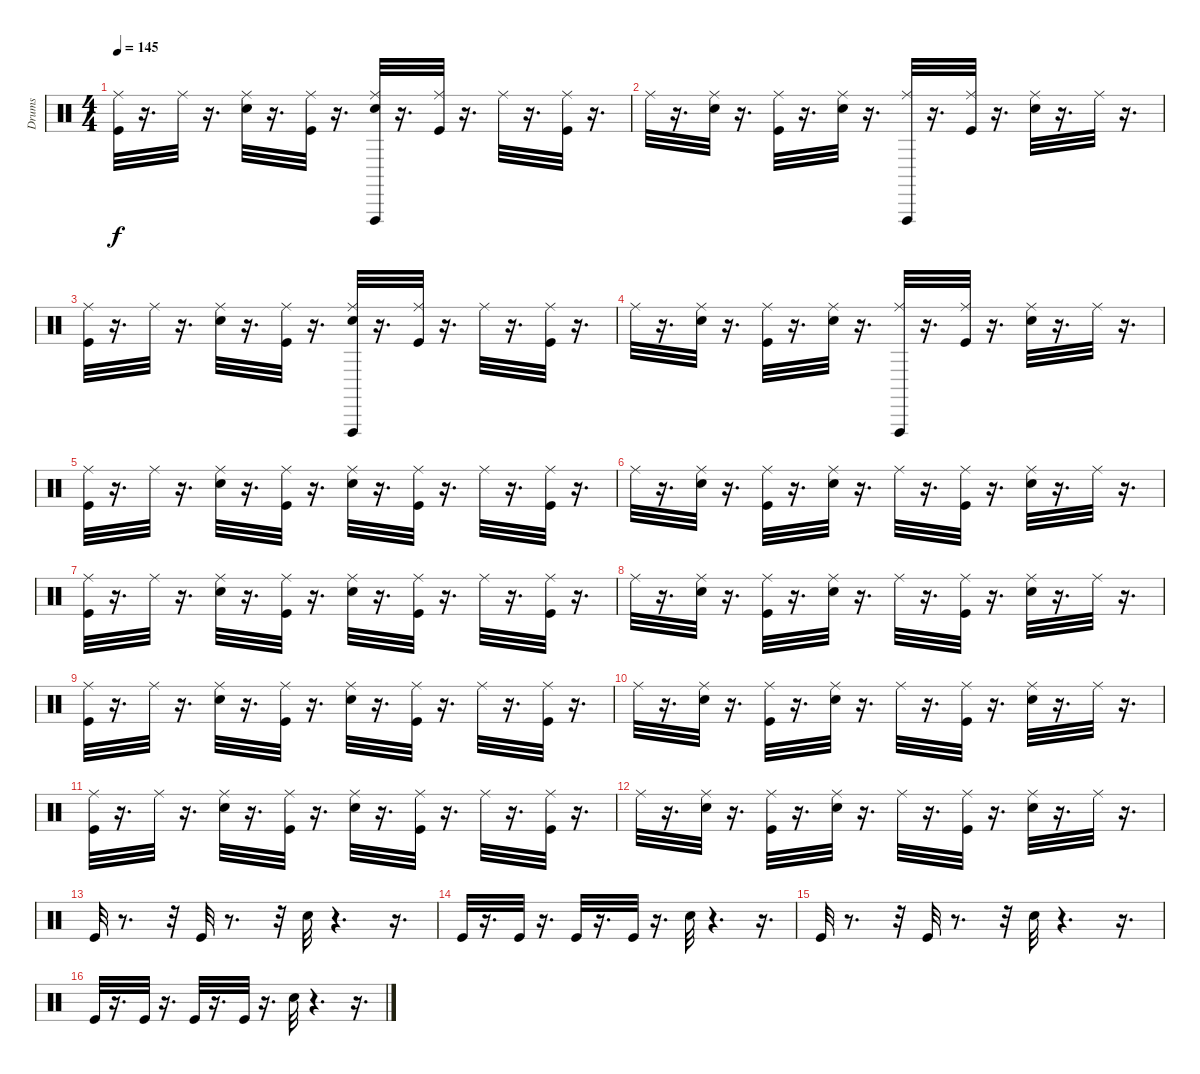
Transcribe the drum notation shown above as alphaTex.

\track ("Drums" "Drums") {instrument percussion}
\staff {score}
\articulation defaults
\ts (4 4)
\tempo 145
\clef neutral
\ks c
("Ride (middle)" "Kick (hit)").32{dy f} r.16{d} "Ride (middle)".32 r.16{d} ("Snare (hit) 2" "Ride (middle)").32 r.16{d} ("Ride (middle)" "Kick (hit)").32 r.16{d} ("Snare (hit) 2" "Vibraslap (hit)" "Ride (middle)").32 r.16{d} ("Kick (hit)" "Ride (middle)").32 r.16{d} "Ride (middle)".32 r.16{d} ("Ride (middle)" "Kick (hit)").32 r.16{d} |
"Ride (middle)".32 r.16{d} ("Ride (middle)" "Snare (hit) 2").32 r.16{d} ("Ride (middle)" "Kick (hit)").32 r.16{d} ("Ride (middle)" "Snare (hit) 2").32 r.16{d} ("Vibraslap (hit)" "Ride (middle)").32 r.16{d} ("Ride (middle)" "Kick (hit)").32 r.16{d} ("Ride (middle)" "Snare (hit) 2").32 r.16{d} "Ride (middle)".32 r.16{d} |
("Kick (hit)" "Ride (middle)").32 r.16{d} "Ride (middle)".32 r.16{d} ("Snare (hit) 2" "Ride (middle)").32 r.16{d} ("Ride (middle)" "Kick (hit)").32 r.16{d} ("Snare (hit) 2" "Vibraslap (hit)" "Ride (middle)").32 r.16{d} ("Kick (hit)" "Ride (middle)").32 r.16{d} "Ride (middle)".32 r.16{d} ("Ride (middle)" "Kick (hit)").32 r.16{d} |
"Ride (middle)".32 r.16{d} ("Ride (middle)" "Snare (hit) 2").32 r.16{d} ("Ride (middle)" "Kick (hit)").32 r.16{d} ("Ride (middle)" "Snare (hit) 2").32 r.16{d} ("Vibraslap (hit)" "Ride (middle)").32 r.16{d} ("Ride (middle)" "Kick (hit)").32 r.16{d} ("Ride (middle)" "Snare (hit) 2").32 r.16{d} "Ride (middle)".32 r.16{d} |
("Ride (middle)" "Kick (hit)").32 r.16{d} "Ride (middle)".32 r.16{d} ("Snare (hit) 2" "Ride (middle)").32 r.16{d} ("Ride (middle)" "Kick (hit)").32 r.16{d} ("Snare (hit) 2" "Ride (middle)").32 r.16{d} ("Kick (hit)" "Ride (middle)").32 r.16{d} "Ride (middle)".32 r.16{d} ("Ride (middle)" "Kick (hit)").32 r.16{d} |
"Ride (middle)".32 r.16{d} ("Ride (middle)" "Snare (hit) 2").32 r.16{d} ("Ride (middle)" "Kick (hit)").32 r.16{d} ("Ride (middle)" "Snare (hit) 2").32 r.16{d} "Ride (middle)".32 r.16{d} ("Ride (middle)" "Kick (hit)").32 r.16{d} ("Ride (middle)" "Snare (hit) 2").32 r.16{d} "Ride (middle)".32 r.16{d} |
("Kick (hit)" "Ride (middle)").32 r.16{d} "Ride (middle)".32 r.16{d} ("Snare (hit) 2" "Ride (middle)").32 r.16{d} ("Ride (middle)" "Kick (hit)").32 r.16{d} ("Snare (hit) 2" "Ride (middle)").32 r.16{d} ("Kick (hit)" "Ride (middle)").32 r.16{d} "Ride (middle)".32 r.16{d} ("Ride (middle)" "Kick (hit)").32 r.16{d} |
"Ride (middle)".32 r.16{d} ("Ride (middle)" "Snare (hit) 2").32 r.16{d} ("Ride (middle)" "Kick (hit)").32 r.16{d} ("Ride (middle)" "Snare (hit) 2").32 r.16{d} "Ride (middle)".32 r.16{d} ("Ride (middle)" "Kick (hit)").32 r.16{d} ("Ride (middle)" "Snare (hit) 2").32 r.16{d} "Ride (middle)".32 r.16{d} |
("Ride (middle)" "Kick (hit)").32 r.16{d} "Ride (middle)".32 r.16{d} ("Snare (hit) 2" "Ride (middle)").32 r.16{d} ("Ride (middle)" "Kick (hit)").32 r.16{d} ("Snare (hit) 2" "Ride (middle)").32 r.16{d} ("Kick (hit)" "Ride (middle)").32 r.16{d} "Ride (middle)".32 r.16{d} ("Ride (middle)" "Kick (hit)").32 r.16{d} |
"Ride (middle)".32 r.16{d} ("Ride (middle)" "Snare (hit) 2").32 r.16{d} ("Ride (middle)" "Kick (hit)").32 r.16{d} ("Ride (middle)" "Snare (hit) 2").32 r.16{d} "Ride (middle)".32 r.16{d} ("Ride (middle)" "Kick (hit)").32 r.16{d} ("Ride (middle)" "Snare (hit) 2").32 r.16{d} "Ride (middle)".32 r.16{d} |
("Kick (hit)" "Ride (middle)").32 r.16{d} "Ride (middle)".32 r.16{d} ("Snare (hit) 2" "Ride (middle)").32 r.16{d} ("Ride (middle)" "Kick (hit)").32 r.16{d} ("Snare (hit) 2" "Ride (middle)").32 r.16{d} ("Kick (hit)" "Ride (middle)").32 r.16{d} "Ride (middle)".32 r.16{d} ("Ride (middle)" "Kick (hit)").32 r.16{d} |
"Ride (middle)".32 r.16{d} ("Ride (middle)" "Snare (hit) 2").32 r.16{d} ("Ride (middle)" "Kick (hit)").32 r.16{d} ("Ride (middle)" "Snare (hit) 2").32 r.16{d} "Ride (middle)".32 r.16{d} ("Ride (middle)" "Kick (hit)").32 r.16{d} ("Ride (middle)" "Snare (hit) 2").32 r.16{d} "Ride (middle)".32 r.16{d} |
"Kick (hit)".32 r.8{d} r.32 "Kick (hit)".32 r.8{d} r.32 "Snare (hit) 2".32 r.4{d} r.16{d} |
"Kick (hit)".32 r.16{d} "Kick (hit)".32 r.16{d} "Kick (hit)".32 r.16{d} "Kick (hit)".32 r.16{d} "Snare (hit) 2".32 r.4{d} r.16{d} |
"Kick (hit)".32 r.8{d} r.32 "Kick (hit)".32 r.8{d} r.32 "Snare (hit) 2".32 r.4{d} r.16{d} |
"Kick (hit)".32 r.16{d} "Kick (hit)".32 r.16{d} "Kick (hit)".32 r.16{d} "Kick (hit)".32 r.16{d} "Snare (hit) 2".32 r.4{d} r.16{d}
